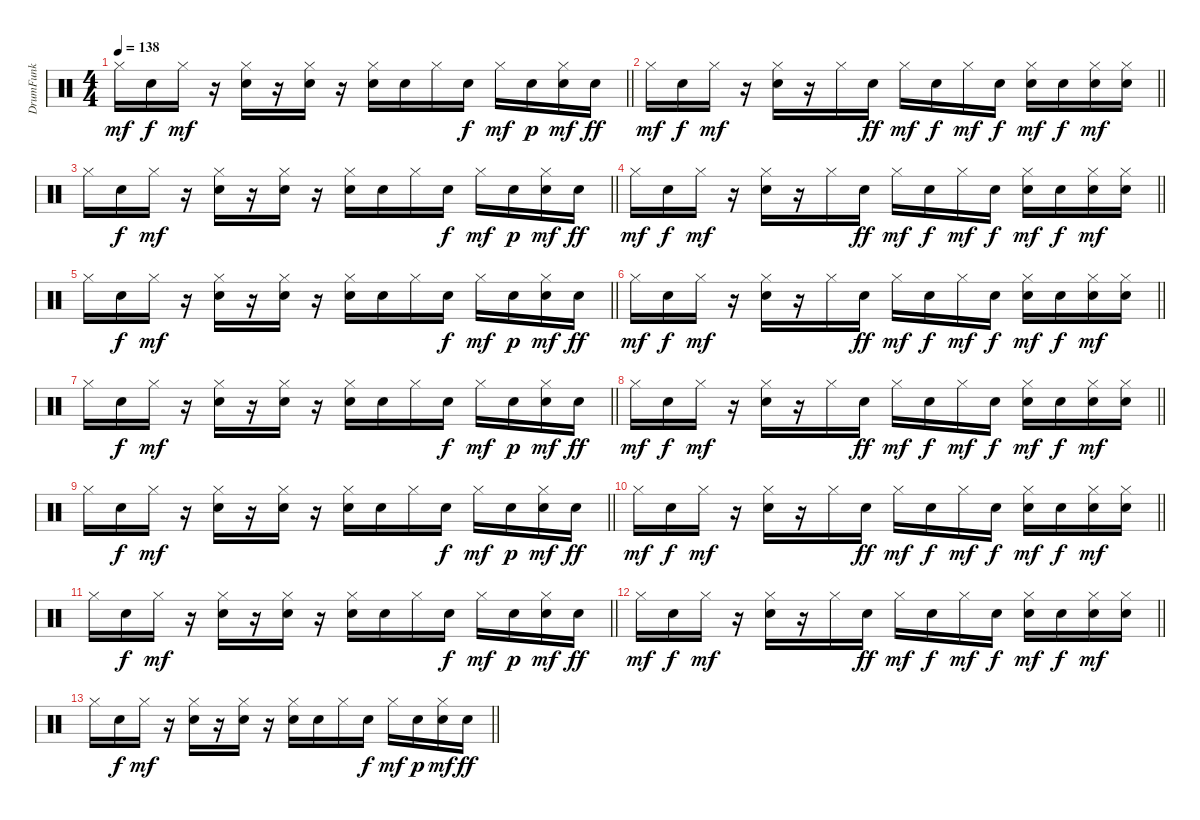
\track ("DrumFunk" "DrumFunk") {instrument percussion}
\staff {score}
\articulation defaults
\ts (4 4)
\tempo 138
\clef neutral
\barLineRight lightlight
\ks c "Hi-Hat (closed)".16{dy mf} "Snare (hit) 2".16{dy f} "Hi-Hat (closed)".16{dy mf}
r.16 ("Snare (hit) 2" "Hi-Hat (closed)").16 r.16 ("Electric Snare (hit)" "Hi-Hat (closed)").16 r.16 ("Snare (hit) 2" "Hi-Hat (closed)").16 "Snare (hit) 2".16 "Hi-Hat (closed)".16 "Snare (hit) 2".16{dy f} "Hi-Hat (closed)".16{dy mf} "Snare (hit) 2".16{dy p} ("Snare (hit) 2" "Hi-Hat (closed)").16{dy mf} "Snare (hit) 2".16{dy ff} |
\barLineRight lightlight "Hi-Hat (closed)".16{dy mf} "Snare (hit) 2".16{dy f} "Hi-Hat (closed)".16{dy mf}
r.16 ("Snare (hit) 2" "Hi-Hat (closed)").16 r.16 "Hi-Hat (closed)".16 "Snare (hit) 2".16{dy ff} "Hi-Hat (closed)".16{dy mf} "Snare (hit) 2".16{dy f} "Hi-Hat (closed)".16{dy mf} "Electric Snare (hit)".16{dy f} ("Snare (hit) 2" "Hi-Hat (closed)").16{dy mf} "Electric Snare (hit)".16{dy f} ("Snare (hit) 2" "Hi-Hat (closed)").16{dy mf} ("Snare (hit) 2" "Hi-Hat (closed)").16 |
\barLineRight lightlight "Hi-Hat (closed)".16 "Snare (hit) 2".16{dy f} "Hi-Hat (closed)".16{dy mf}
r.16 ("Snare (hit) 2" "Hi-Hat (closed)").16 r.16 ("Electric Snare (hit)" "Hi-Hat (closed)").16 r.16 ("Snare (hit) 2" "Hi-Hat (closed)").16 "Snare (hit) 2".16 "Hi-Hat (closed)".16 "Snare (hit) 2".16{dy f} "Hi-Hat (closed)".16{dy mf} "Snare (hit) 2".16{dy p} ("Snare (hit) 2" "Hi-Hat (closed)").16{dy mf} "Snare (hit) 2".16{dy ff} |
\barLineRight lightlight "Hi-Hat (closed)".16{dy mf} "Snare (hit) 2".16{dy f} "Hi-Hat (closed)".16{dy mf}
r.16 ("Snare (hit) 2" "Hi-Hat (closed)").16 r.16 "Hi-Hat (closed)".16 "Snare (hit) 2".16{dy ff} "Hi-Hat (closed)".16{dy mf} "Snare (hit) 2".16{dy f} "Hi-Hat (closed)".16{dy mf} "Electric Snare (hit)".16{dy f} ("Snare (hit) 2" "Hi-Hat (closed)").16{dy mf} "Electric Snare (hit)".16{dy f} ("Snare (hit) 2" "Hi-Hat (closed)").16{dy mf} ("Snare (hit) 2" "Hi-Hat (closed)").16 |
\barLineRight lightlight "Hi-Hat (closed)".16 "Snare (hit) 2".16{dy f} "Hi-Hat (closed)".16{dy mf}
r.16 ("Snare (hit) 2" "Hi-Hat (closed)").16 r.16 ("Electric Snare (hit)" "Hi-Hat (closed)").16 r.16 ("Snare (hit) 2" "Hi-Hat (closed)").16 "Snare (hit) 2".16 "Hi-Hat (closed)".16 "Snare (hit) 2".16{dy f} "Hi-Hat (closed)".16{dy mf} "Snare (hit) 2".16{dy p} ("Snare (hit) 2" "Hi-Hat (closed)").16{dy mf} "Snare (hit) 2".16{dy ff} |
\barLineRight lightlight "Hi-Hat (closed)".16{dy mf} "Snare (hit) 2".16{dy f} "Hi-Hat (closed)".16{dy mf}
r.16 ("Snare (hit) 2" "Hi-Hat (closed)").16 r.16 "Hi-Hat (closed)".16 "Snare (hit) 2".16{dy ff} "Hi-Hat (closed)".16{dy mf} "Snare (hit) 2".16{dy f} "Hi-Hat (closed)".16{dy mf} "Electric Snare (hit)".16{dy f} ("Snare (hit) 2" "Hi-Hat (closed)").16{dy mf} "Electric Snare (hit)".16{dy f} ("Snare (hit) 2" "Hi-Hat (closed)").16{dy mf} ("Snare (hit) 2" "Hi-Hat (closed)").16 |
\barLineRight lightlight "Hi-Hat (closed)".16 "Snare (hit) 2".16{dy f} "Hi-Hat (closed)".16{dy mf}
r.16 ("Snare (hit) 2" "Hi-Hat (closed)").16 r.16 ("Electric Snare (hit)" "Hi-Hat (closed)").16 r.16 ("Snare (hit) 2" "Hi-Hat (closed)").16 "Snare (hit) 2".16 "Hi-Hat (closed)".16 "Snare (hit) 2".16{dy f} "Hi-Hat (closed)".16{dy mf} "Snare (hit) 2".16{dy p} ("Snare (hit) 2" "Hi-Hat (closed)").16{dy mf} "Snare (hit) 2".16{dy ff} |
\barLineRight lightlight "Hi-Hat (closed)".16{dy mf} "Snare (hit) 2".16{dy f} "Hi-Hat (closed)".16{dy mf}
r.16 ("Snare (hit) 2" "Hi-Hat (closed)").16 r.16 "Hi-Hat (closed)".16 "Snare (hit) 2".16{dy ff} "Hi-Hat (closed)".16{dy mf} "Snare (hit) 2".16{dy f} "Hi-Hat (closed)".16{dy mf} "Electric Snare (hit)".16{dy f} ("Snare (hit) 2" "Hi-Hat (closed)").16{dy mf} "Electric Snare (hit)".16{dy f} ("Snare (hit) 2" "Hi-Hat (closed)").16{dy mf} ("Snare (hit) 2" "Hi-Hat (closed)").16 |
\barLineRight lightlight "Hi-Hat (closed)".16 "Snare (hit) 2".16{dy f} "Hi-Hat (closed)".16{dy mf}
r.16 ("Snare (hit) 2" "Hi-Hat (closed)").16 r.16 ("Electric Snare (hit)" "Hi-Hat (closed)").16 r.16 ("Snare (hit) 2" "Hi-Hat (closed)").16 "Snare (hit) 2".16 "Hi-Hat (closed)".16 "Snare (hit) 2".16{dy f} "Hi-Hat (closed)".16{dy mf} "Snare (hit) 2".16{dy p} ("Snare (hit) 2" "Hi-Hat (closed)").16{dy mf} "Snare (hit) 2".16{dy ff} |
\barLineRight lightlight "Hi-Hat (closed)".16{dy mf} "Snare (hit) 2".16{dy f} "Hi-Hat (closed)".16{dy mf}
r.16 ("Snare (hit) 2" "Hi-Hat (closed)").16 r.16 "Hi-Hat (closed)".16 "Snare (hit) 2".16{dy ff} "Hi-Hat (closed)".16{dy mf} "Snare (hit) 2".16{dy f} "Hi-Hat (closed)".16{dy mf} "Electric Snare (hit)".16{dy f} ("Snare (hit) 2" "Hi-Hat (closed)").16{dy mf} "Electric Snare (hit)".16{dy f} ("Snare (hit) 2" "Hi-Hat (closed)").16{dy mf} ("Snare (hit) 2" "Hi-Hat (closed)").16 |
\barLineRight lightlight "Hi-Hat (closed)".16 "Snare (hit) 2".16{dy f} "Hi-Hat (closed)".16{dy mf}
r.16 ("Snare (hit) 2" "Hi-Hat (closed)").16 r.16 ("Electric Snare (hit)" "Hi-Hat (closed)").16 r.16 ("Snare (hit) 2" "Hi-Hat (closed)").16 "Snare (hit) 2".16 "Hi-Hat (closed)".16 "Snare (hit) 2".16{dy f} "Hi-Hat (closed)".16{dy mf} "Snare (hit) 2".16{dy p} ("Snare (hit) 2" "Hi-Hat (closed)").16{dy mf} "Snare (hit) 2".16{dy ff} |
\barLineRight lightlight "Hi-Hat (closed)".16{dy mf} "Snare (hit) 2".16{dy f} "Hi-Hat (closed)".16{dy mf}
r.16 ("Snare (hit) 2" "Hi-Hat (closed)").16 r.16 "Hi-Hat (closed)".16 "Snare (hit) 2".16{dy ff} "Hi-Hat (closed)".16{dy mf} "Snare (hit) 2".16{dy f} "Hi-Hat (closed)".16{dy mf} "Electric Snare (hit)".16{dy f} ("Snare (hit) 2" "Hi-Hat (closed)").16{dy mf} "Electric Snare (hit)".16{dy f} ("Snare (hit) 2" "Hi-Hat (closed)").16{dy mf} ("Snare (hit) 2" "Hi-Hat (closed)").16 |
\barLineRight lightlight "Hi-Hat (closed)".16 "Snare (hit) 2".16{dy f} "Hi-Hat (closed)".16{dy mf}
r.16 ("Snare (hit) 2" "Hi-Hat (closed)").16 r.16 ("Electric Snare (hit)" "Hi-Hat (closed)").16 r.16 ("Snare (hit) 2" "Hi-Hat (closed)").16 "Snare (hit) 2".16 "Hi-Hat (closed)".16 "Snare (hit) 2".16{dy f} "Hi-Hat (closed)".16{dy mf} "Snare (hit) 2".16{dy p} ("Snare (hit) 2" "Hi-Hat (closed)").16{dy mf} "Snare (hit) 2".16{dy ff}
